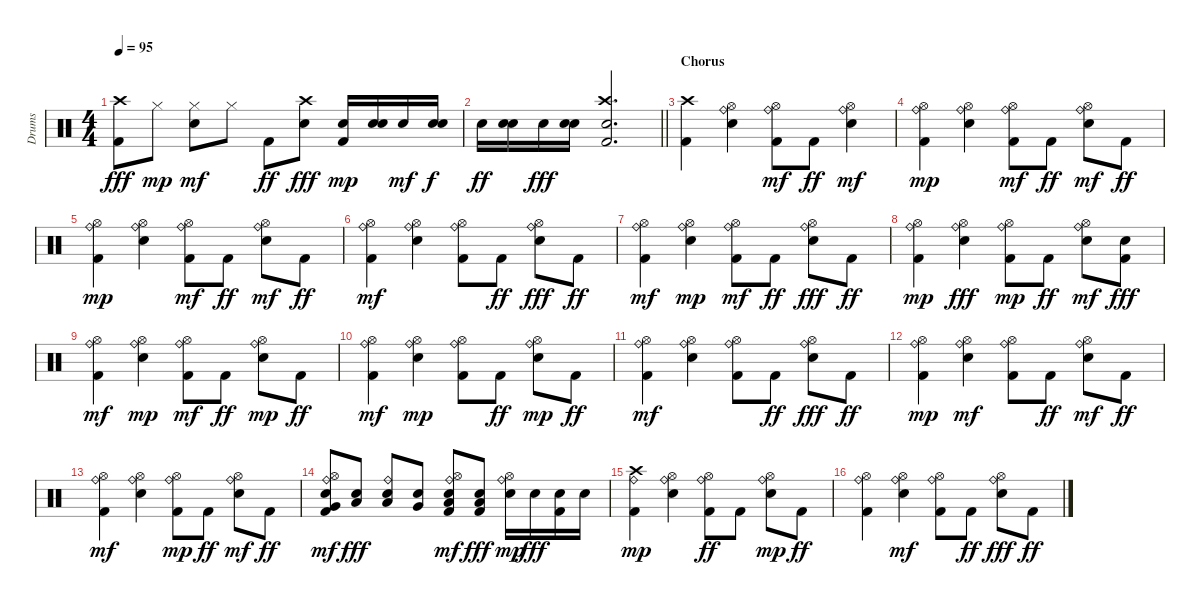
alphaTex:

\track ("Drums" "Drums") {instrument percussion}
\staff {score}
\articulation defaults
\ts (4 4)
\tempo 95
\clef neutral
\ks c
("Kick (hit) 2" "Crash high (hit)").8{dy fff} "Hi-Hat (closed)".8{dy mp} ("Electric Snare (hit)" "Hi-Hat (closed)").8{dy mf} "Hi-Hat (closed)".8 "Kick (hit) 2".8{dy ff} ("Electric Snare (hit)" "Crash high (hit)").8{dy fff} ("Kick (hit) 2" "Electric Snare (hit)").16{dy mp} ("Electric Snare (hit)" "Electric Snare (hit)").16 "Electric Snare (hit)".16{dy mf} ("Electric Snare (hit)" "Electric Snare (hit)").16{dy f} |
\barLineRight lightlight "Electric Snare (hit)".16{dy ff}
("Electric Snare (hit)" "Electric Snare (hit)").16 "Electric Snare (hit)".16{dy fff} ("Electric Snare (hit)" "Electric Snare (hit)").16 ("Kick (hit) 2" "Electric Snare (hit)" "Crash high (hit)").2{d} |
\section ("" "Chorus")
("Kick (hit) 2" "Crash high (hit)").4 ("Electric Snare (hit)" "Hi-Hat (open)" "Ride (bell)").4 ("Kick (hit) 2" "Hi-Hat (open)" "Ride (bell)").8{dy mf} "Kick (hit) 2".8{dy ff} ("Electric Snare (hit)" "Hi-Hat (open)" "Ride (bell)").4{dy mf} |
("Kick (hit) 2" "Hi-Hat (open)" "Ride (bell)").4{dy mp} ("Electric Snare (hit)" "Hi-Hat (open)" "Ride (bell)").4 ("Kick (hit) 2" "Hi-Hat (open)" "Ride (bell)").8{dy mf} "Kick (hit) 2".8{dy ff} ("Electric Snare (hit)" "Hi-Hat (open)" "Ride (bell)").8{dy mf} "Kick (hit) 2".8{dy ff} |
("Kick (hit) 2" "Hi-Hat (open)" "Ride (bell)").4{dy mp} ("Electric Snare (hit)" "Hi-Hat (open)" "Ride (bell)").4 ("Kick (hit) 2" "Hi-Hat (open)" "Ride (bell)").8{dy mf} "Kick (hit) 2".8{dy ff} ("Electric Snare (hit)" "Hi-Hat (open)" "Ride (bell)").8{dy mf} "Kick (hit) 2".8{dy ff} |
("Kick (hit) 2" "Hi-Hat (open)" "Ride (bell)").4{dy mf} ("Electric Snare (hit)" "Hi-Hat (open)" "Ride (bell)").4 ("Kick (hit) 2" "Hi-Hat (open)" "Ride (bell)").8 "Kick (hit) 2".8{dy ff} ("Electric Snare (hit)" "Hi-Hat (open)" "Ride (bell)").8{dy fff} "Kick (hit) 2".8{dy ff} |
("Kick (hit) 2" "Hi-Hat (open)" "Ride (bell)").4{dy mf} ("Electric Snare (hit)" "Hi-Hat (open)" "Ride (bell)").4{dy mp} ("Kick (hit) 2" "Hi-Hat (open)" "Ride (bell)").8{dy mf} "Kick (hit) 2".8{dy ff} ("Electric Snare (hit)" "Hi-Hat (open)" "Ride (bell)").8{dy fff} "Kick (hit) 2".8{dy ff} |
("Kick (hit) 2" "Hi-Hat (open)" "Ride (bell)").4{dy mp} ("Electric Snare (hit)" "Hi-Hat (open)" "Ride (bell)").4{dy fff} ("Kick (hit) 2" "Hi-Hat (open)" "Ride (bell)").8{dy mp} "Kick (hit) 2".8{dy ff} ("Electric Snare (hit)" "Hi-Hat (open)" "Ride (bell)").8{dy mf} ("Kick (hit) 2" "Electric Snare (hit)").8{dy fff} |
("Kick (hit) 2" "Hi-Hat (open)" "Ride (bell)").4{dy mf} ("Electric Snare (hit)" "Hi-Hat (open)" "Ride (bell)").4{dy mp} ("Kick (hit) 2" "Hi-Hat (open)" "Ride (bell)").8{dy mf} "Kick (hit) 2".8{dy ff} ("Electric Snare (hit)" "Hi-Hat (open)" "Ride (bell)").8{dy mp} "Kick (hit) 2".8{dy ff} |
("Kick (hit) 2" "Hi-Hat (open)" "Ride (bell)").4{dy mf} ("Electric Snare (hit)" "Hi-Hat (open)" "Ride (bell)").4{dy mp} ("Kick (hit) 2" "Hi-Hat (open)" "Ride (bell)").8 "Kick (hit) 2".8{dy ff} ("Electric Snare (hit)" "Hi-Hat (open)" "Ride (bell)").8{dy mp} "Kick (hit) 2".8{dy ff} |
("Kick (hit) 2" "Hi-Hat (open)" "Ride (bell)").4{dy mf} ("Electric Snare (hit)" "Hi-Hat (open)" "Ride (bell)").4 ("Kick (hit) 2" "Hi-Hat (open)" "Ride (bell)").8 "Kick (hit) 2".8{dy ff} ("Electric Snare (hit)" "Hi-Hat (open)" "Ride (bell)").8{dy fff} "Kick (hit) 2".8{dy ff} |
("Kick (hit) 2" "Hi-Hat (open)" "Ride (bell)").4{dy mp} ("Electric Snare (hit)" "Hi-Hat (open)" "Ride (bell)").4{dy mf} ("Kick (hit) 2" "Hi-Hat (open)" "Ride (bell)").8 "Kick (hit) 2".8{dy ff} ("Electric Snare (hit)" "Hi-Hat (open)" "Ride (bell)").8{dy mf} "Kick (hit) 2".8{dy ff} |
("Kick (hit) 2" "Hi-Hat (open)" "Ride (bell)").4{dy mf} ("Electric Snare (hit)" "Hi-Hat (open)" "Ride (bell)").4 ("Kick (hit) 2" "Hi-Hat (open)" "Ride (bell)").8{dy mp} "Kick (hit) 2".8{dy ff} ("Electric Snare (hit)" "Hi-Hat (open)" "Ride (bell)").8{dy mf} "Kick (hit) 2".8{dy ff} |
("Kick (hit) 2" "Electric Snare (hit)" "Very Low Tom (hit)" "Hi-Hat (open)" "Ride (bell)").8{dy mf} ("Electric Snare (hit)" "Low Floor Tom (hit)").8{dy fff} ("Electric Snare (hit)" "Low Tom (hit)" "Ride (bell)").8 ("Electric Snare (hit)" "Very Low Tom (hit)").8 ("Kick (hit) 2" "Electric Snare (hit)" "Low Floor Tom (hit)" "Hi-Hat (open)" "Ride (bell)").8{dy mf} ("Kick (hit) 2" "Electric Snare (hit)" "Low Tom (hit)").8{dy fff} ("Electric Snare (hit)" "Hi-Hat (open)" "Ride (bell)").16{dy mp} "Electric Snare (hit)".16{dy fff} ("Kick (hit) 2" "Electric Snare (hit)").16 "Electric Snare (hit)".16 |
("Kick (hit) 2" "Crash high (hit)" "Ride (bell)").4{dy mp} ("Electric Snare (hit)" "Hi-Hat (open)" "Ride (bell)").4 ("Kick (hit) 2" "Hi-Hat (open)" "Ride (bell)").8{dy ff} "Kick (hit) 2".8 ("Electric Snare (hit)" "Hi-Hat (open)" "Ride (bell)").8{dy mp} "Kick (hit) 2".8{dy ff} |
("Kick (hit) 2" "Hi-Hat (open)" "Ride (bell)").4 ("Electric Snare (hit)" "Hi-Hat (open)" "Ride (bell)").4{dy mf} ("Kick (hit) 2" "Hi-Hat (open)" "Ride (bell)").8 "Kick (hit) 2".8{dy ff} ("Electric Snare (hit)" "Hi-Hat (open)" "Ride (bell)").8{dy fff} "Kick (hit) 2".8{dy ff}
